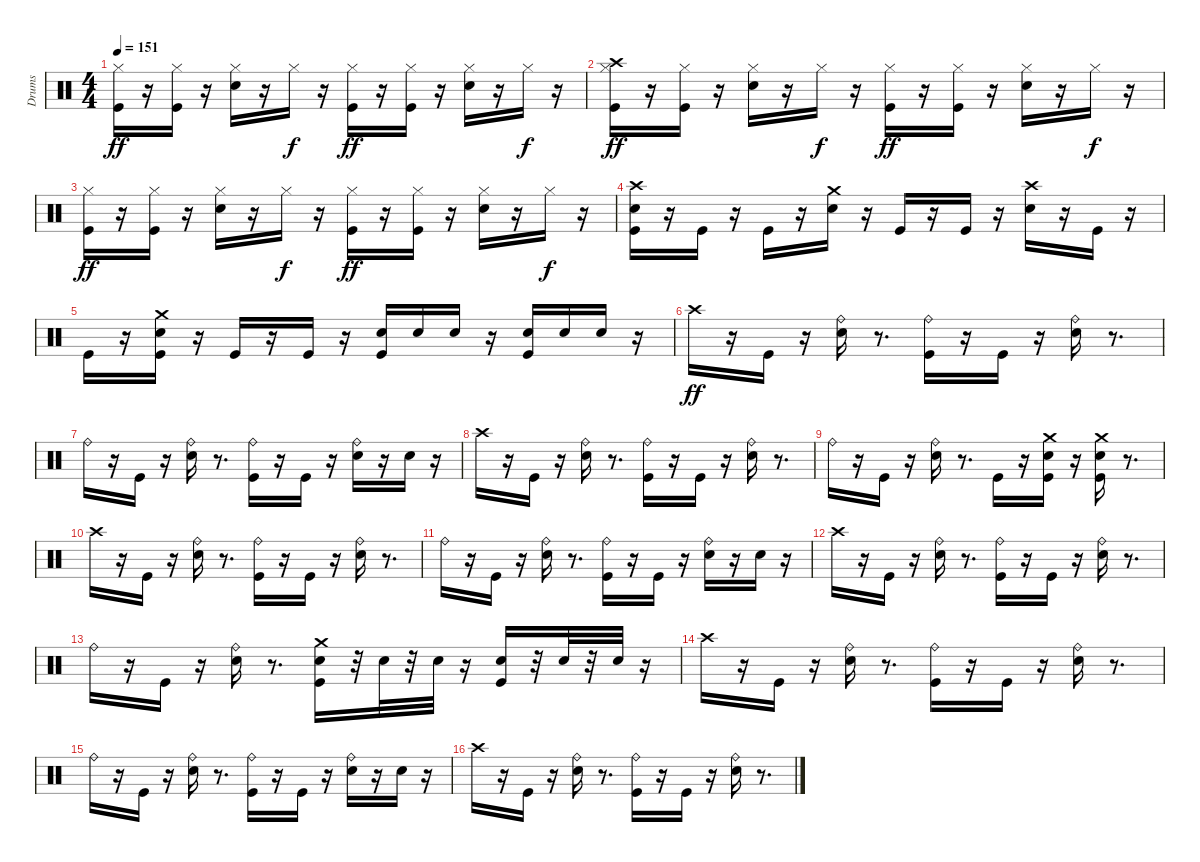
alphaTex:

\track ("Drums" "Drums") {instrument percussion}
\staff {score}
\articulation defaults
\ts (4 4)
\tempo 151
\clef neutral
\ks c
("Kick (hit)" "Hi-Hat (closed)").16{dy ff} r.16 ("Kick (hit)" "Hi-Hat (closed)").16 r.16 ("Snare (hit) 2" "Hi-Hat (closed)").16 r.16 "Hi-Hat (closed)".16{dy f} r.16 ("Kick (hit)" "Hi-Hat (closed)").16{dy ff} r.16 ("Kick (hit)" "Hi-Hat (closed)").16 r.16 ("Snare (hit) 2" "Hi-Hat (closed)").16 r.16 "Hi-Hat (closed)".16{dy f} r.16 |
("Kick (hit)" "Hi-Hat (closed)" "Crash high (hit)").16{dy ff} r.16 ("Kick (hit)" "Hi-Hat (closed)").16 r.16 ("Snare (hit) 2" "Hi-Hat (closed)").16 r.16 "Hi-Hat (closed)".16{dy f} r.16 ("Kick (hit)" "Hi-Hat (closed)").16{dy ff} r.16 ("Kick (hit)" "Hi-Hat (closed)").16 r.16 ("Snare (hit) 2" "Hi-Hat (closed)").16 r.16 "Hi-Hat (closed)".16{dy f} r.16 |
("Kick (hit)" "Hi-Hat (closed)").16{dy ff} r.16 ("Kick (hit)" "Hi-Hat (closed)").16 r.16 ("Snare (hit) 2" "Hi-Hat (closed)").16 r.16 "Hi-Hat (closed)".16{dy f} r.16 ("Kick (hit)" "Hi-Hat (closed)").16{dy ff} r.16 ("Kick (hit)" "Hi-Hat (closed)").16 r.16 ("Snare (hit) 2" "Hi-Hat (closed)").16 r.16 "Hi-Hat (closed)".16{dy f} r.16 |
("Kick (hit)" "Snare (hit) 2" "Crash high (hit)").16 r.16 "Kick (hit)".16 r.16 "Kick (hit)".16 r.16 ("Snare (hit) 2" "Crash medium (hit)").16 r.16 "Kick (hit)".16 r.16 "Kick (hit)".16 r.16 ("Snare (hit) 2" "Crash high (hit)").16 r.16 "Kick (hit)".16 r.16 |
"Kick (hit)".16 r.16 ("Kick (hit)" "Snare (hit) 2" "Crash medium (hit)").16 r.16 "Kick (hit)".16 r.16 "Kick (hit)".16 r.16 ("Kick (hit)" "Snare (hit) 2").16 "Snare (hit) 2".16 "Snare (hit) 2".16 r.16 ("Kick (hit)" "Snare (hit) 2").16 "Snare (hit) 2".16 "Snare (hit) 2".16 r.16 |
"Crash high (hit)".16{dy ff} r.16 "Kick (hit)".16 r.16 ("Snare (hit) 2" "Ride (bell)").16 r.8{d} ("Kick (hit)" "Ride (bell)").16 r.16 "Kick (hit)".16 r.16 ("Snare (hit) 2" "Ride (bell)").16 r.8{d} |
"Ride (bell)".16 r.16 "Kick (hit)".16 r.16 ("Snare (hit) 2" "Ride (bell)").16 r.8{d} ("Kick (hit)" "Ride (bell)").16 r.16 "Kick (hit)".16 r.16 ("Snare (hit) 2" "Ride (bell)").16 r.16 "Snare (hit) 2".16 r.16 |
"Crash high (hit)".16 r.16 "Kick (hit)".16 r.16 ("Snare (hit) 2" "Ride (bell)").16 r.8{d} ("Kick (hit)" "Ride (bell)").16 r.16 "Kick (hit)".16 r.16 ("Snare (hit) 2" "Ride (bell)").16 r.8{d} |
"Ride (bell)".16 r.16 "Kick (hit)".16 r.16 ("Snare (hit) 2" "Ride (bell)").16 r.8{d} "Kick (hit)".16 r.16 ("Kick (hit)" "Snare (hit) 2" "Crash medium (hit)").16 r.16 ("Kick (hit)" "Snare (hit) 2" "Crash medium (hit)").16 r.8{d} |
"Crash high (hit)".16 r.16 "Kick (hit)".16 r.16 ("Snare (hit) 2" "Ride (bell)").16 r.8{d} ("Kick (hit)" "Ride (bell)").16 r.16 "Kick (hit)".16 r.16 ("Snare (hit) 2" "Ride (bell)").16 r.8{d} |
"Ride (bell)".16 r.16 "Kick (hit)".16 r.16 ("Snare (hit) 2" "Ride (bell)").16 r.8{d} ("Kick (hit)" "Ride (bell)").16 r.16 "Kick (hit)".16 r.16 ("Snare (hit) 2" "Ride (bell)").16 r.16 "Snare (hit) 2".16 r.16 |
"Crash high (hit)".16 r.16 "Kick (hit)".16 r.16 ("Snare (hit) 2" "Ride (bell)").16 r.8{d} ("Kick (hit)" "Ride (bell)").16 r.16 "Kick (hit)".16 r.16 ("Snare (hit) 2" "Ride (bell)").16 r.8{d} |
"Ride (bell)".16 r.16 "Kick (hit)".16 r.16 ("Snare (hit) 2" "Ride (bell)").16 r.8{d} ("Kick (hit)" "Snare (hit) 2" "Crash medium (hit)").16 r.32 "Snare (hit) 2".32 r.32 "Snare (hit) 2".32 r.16 ("Kick (hit)" "Snare (hit) 2").16 r.32 "Snare (hit) 2".32 r.32 "Snare (hit) 2".32 r.16 |
"Crash high (hit)".16 r.16 "Kick (hit)".16 r.16 ("Snare (hit) 2" "Ride (bell)").16 r.8{d} ("Kick (hit)" "Ride (bell)").16 r.16 "Kick (hit)".16 r.16 ("Snare (hit) 2" "Ride (bell)").16 r.8{d} |
"Ride (bell)".16 r.16 "Kick (hit)".16 r.16 ("Snare (hit) 2" "Ride (bell)").16 r.8{d} ("Kick (hit)" "Ride (bell)").16 r.16 "Kick (hit)".16 r.16 ("Snare (hit) 2" "Ride (bell)").16 r.16 "Snare (hit) 2".16 r.16 |
"Crash high (hit)".16 r.16 "Kick (hit)".16 r.16 ("Snare (hit) 2" "Ride (bell)").16 r.8{d} ("Kick (hit)" "Ride (bell)").16 r.16 "Kick (hit)".16 r.16 ("Snare (hit) 2" "Ride (bell)").16 r.8{d}
